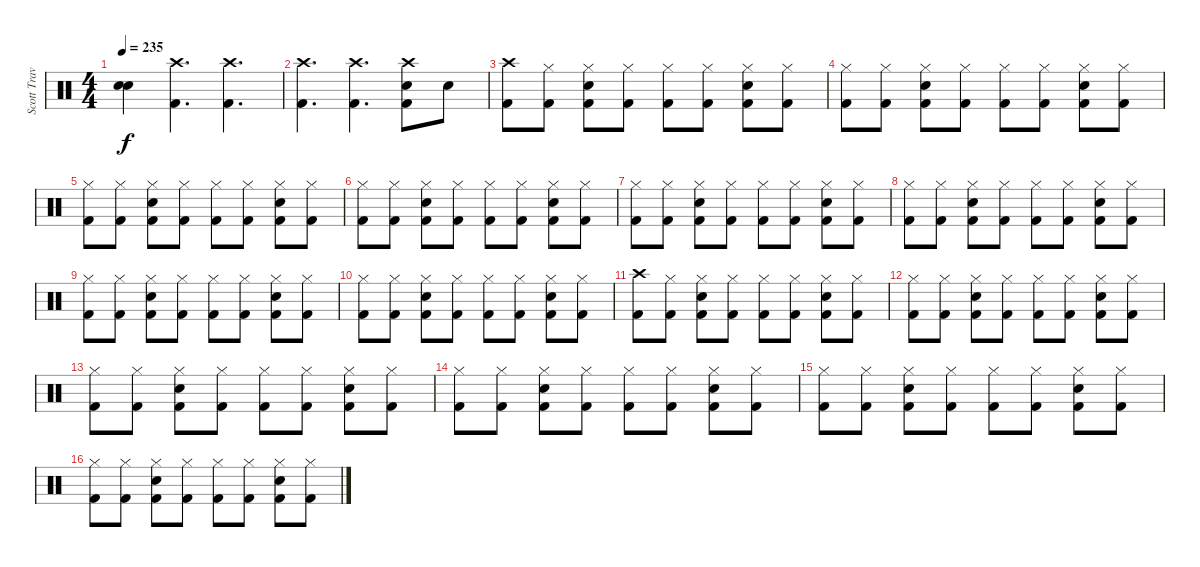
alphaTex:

\track ("Scott Travis" "Scott Trav") {instrument percussion}
\staff {score}
\articulation defaults
\ts (4 4)
\tempo 235
\clef neutral
\ks c
("Snare (hit)"{t} "Snare (hit)"{t}).4{dy f} ("Kick (hit) 2" "Crash high (hit)").4{d} ("Kick (hit) 2" "Crash high (hit)").4{d} |
("Kick (hit) 2" "Crash high (hit)").4{d} ("Kick (hit) 2" "Crash high (hit)").4{d} ("Kick (hit) 2" "Crash high (hit)" "Snare (hit) 2").8 "Snare (hit) 2".8 |
("Kick (hit) 2" "Crash high (hit)").8 ("Kick (hit) 2" "Hi-Hat (closed)").8 ("Kick (hit) 2" "Snare (hit) 2" "Hi-Hat (closed)").8 ("Kick (hit) 2" "Hi-Hat (closed)").8 ("Kick (hit) 2" "Hi-Hat (closed)").8 ("Kick (hit) 2" "Hi-Hat (closed)").8 ("Kick (hit) 2" "Hi-Hat (closed)" "Snare (hit) 2").8 ("Kick (hit) 2" "Hi-Hat (closed)").8 |
("Kick (hit) 2" "Hi-Hat (closed)").8 ("Kick (hit) 2" "Hi-Hat (closed)").8 ("Kick (hit) 2" "Snare (hit) 2" "Hi-Hat (closed)").8 ("Kick (hit) 2" "Hi-Hat (closed)").8 ("Kick (hit) 2" "Hi-Hat (closed)").8 ("Kick (hit) 2" "Hi-Hat (closed)").8 ("Kick (hit) 2" "Hi-Hat (closed)" "Snare (hit) 2").8 ("Kick (hit) 2" "Hi-Hat (closed)").8 |
("Kick (hit) 2" "Hi-Hat (closed)").8 ("Kick (hit) 2" "Hi-Hat (closed)").8 ("Kick (hit) 2" "Snare (hit) 2" "Hi-Hat (closed)").8 ("Kick (hit) 2" "Hi-Hat (closed)").8 ("Kick (hit) 2" "Hi-Hat (closed)").8 ("Kick (hit) 2" "Hi-Hat (closed)").8 ("Kick (hit) 2" "Hi-Hat (closed)" "Snare (hit) 2").8 ("Kick (hit) 2" "Hi-Hat (closed)").8 |
("Kick (hit) 2" "Hi-Hat (closed)").8 ("Kick (hit) 2" "Hi-Hat (closed)").8 ("Kick (hit) 2" "Snare (hit) 2" "Hi-Hat (closed)").8 ("Kick (hit) 2" "Hi-Hat (closed)").8 ("Kick (hit) 2" "Hi-Hat (closed)").8 ("Kick (hit) 2" "Hi-Hat (closed)").8 ("Kick (hit) 2" "Hi-Hat (closed)" "Snare (hit) 2").8 ("Kick (hit) 2" "Hi-Hat (closed)").8 |
("Kick (hit) 2" "Hi-Hat (closed)").8 ("Kick (hit) 2" "Hi-Hat (closed)").8 ("Kick (hit) 2" "Snare (hit) 2" "Hi-Hat (closed)").8 ("Kick (hit) 2" "Hi-Hat (closed)").8 ("Kick (hit) 2" "Hi-Hat (closed)").8 ("Kick (hit) 2" "Hi-Hat (closed)").8 ("Kick (hit) 2" "Hi-Hat (closed)" "Snare (hit) 2").8 ("Kick (hit) 2" "Hi-Hat (closed)").8 |
("Kick (hit) 2" "Hi-Hat (closed)").8 ("Kick (hit) 2" "Hi-Hat (closed)").8 ("Kick (hit) 2" "Snare (hit) 2" "Hi-Hat (closed)").8 ("Kick (hit) 2" "Hi-Hat (closed)").8 ("Kick (hit) 2" "Hi-Hat (closed)").8 ("Kick (hit) 2" "Hi-Hat (closed)").8 ("Kick (hit) 2" "Hi-Hat (closed)" "Snare (hit) 2").8 ("Kick (hit) 2" "Hi-Hat (closed)").8 |
("Kick (hit) 2" "Hi-Hat (closed)").8 ("Kick (hit) 2" "Hi-Hat (closed)").8 ("Kick (hit) 2" "Snare (hit) 2" "Hi-Hat (closed)").8 ("Kick (hit) 2" "Hi-Hat (closed)").8 ("Kick (hit) 2" "Hi-Hat (closed)").8 ("Kick (hit) 2" "Hi-Hat (closed)").8 ("Kick (hit) 2" "Hi-Hat (closed)" "Snare (hit) 2").8 ("Kick (hit) 2" "Hi-Hat (closed)").8 |
("Kick (hit) 2" "Hi-Hat (closed)").8 ("Kick (hit) 2" "Hi-Hat (closed)").8 ("Kick (hit) 2" "Snare (hit) 2" "Hi-Hat (closed)").8 ("Kick (hit) 2" "Hi-Hat (closed)").8 ("Kick (hit) 2" "Hi-Hat (closed)").8 ("Kick (hit) 2" "Hi-Hat (closed)").8 ("Kick (hit) 2" "Hi-Hat (closed)" "Snare (hit) 2").8 ("Kick (hit) 2" "Hi-Hat (closed)").8 |
("Kick (hit) 2" "Crash high (hit)").8 ("Kick (hit) 2" "Hi-Hat (closed)").8 ("Kick (hit) 2" "Snare (hit) 2" "Hi-Hat (closed)").8 ("Kick (hit) 2" "Hi-Hat (closed)").8 ("Kick (hit) 2" "Hi-Hat (closed)").8 ("Kick (hit) 2" "Hi-Hat (closed)").8 ("Kick (hit) 2" "Hi-Hat (closed)" "Snare (hit) 2").8 ("Kick (hit) 2" "Hi-Hat (closed)").8 |
("Kick (hit) 2" "Hi-Hat (closed)").8 ("Kick (hit) 2" "Hi-Hat (closed)").8 ("Kick (hit) 2" "Snare (hit) 2" "Hi-Hat (closed)").8 ("Kick (hit) 2" "Hi-Hat (closed)").8 ("Kick (hit) 2" "Hi-Hat (closed)").8 ("Kick (hit) 2" "Hi-Hat (closed)").8 ("Kick (hit) 2" "Hi-Hat (closed)" "Snare (hit) 2").8 ("Kick (hit) 2" "Hi-Hat (closed)").8 |
("Kick (hit) 2" "Hi-Hat (closed)").8 ("Kick (hit) 2" "Hi-Hat (closed)").8 ("Kick (hit) 2" "Snare (hit) 2" "Hi-Hat (closed)").8 ("Kick (hit) 2" "Hi-Hat (closed)").8 ("Kick (hit) 2" "Hi-Hat (closed)").8 ("Kick (hit) 2" "Hi-Hat (closed)").8 ("Kick (hit) 2" "Hi-Hat (closed)" "Snare (hit) 2").8 ("Kick (hit) 2" "Hi-Hat (closed)").8 |
("Kick (hit) 2" "Hi-Hat (closed)").8 ("Kick (hit) 2" "Hi-Hat (closed)").8 ("Kick (hit) 2" "Snare (hit) 2" "Hi-Hat (closed)").8 ("Kick (hit) 2" "Hi-Hat (closed)").8 ("Kick (hit) 2" "Hi-Hat (closed)").8 ("Kick (hit) 2" "Hi-Hat (closed)").8 ("Kick (hit) 2" "Hi-Hat (closed)" "Snare (hit) 2").8 ("Kick (hit) 2" "Hi-Hat (closed)").8 |
("Kick (hit) 2" "Hi-Hat (closed)").8 ("Kick (hit) 2" "Hi-Hat (closed)").8 ("Kick (hit) 2" "Snare (hit) 2" "Hi-Hat (closed)").8 ("Kick (hit) 2" "Hi-Hat (closed)").8 ("Kick (hit) 2" "Hi-Hat (closed)").8 ("Kick (hit) 2" "Hi-Hat (closed)").8 ("Kick (hit) 2" "Hi-Hat (closed)" "Snare (hit) 2").8 ("Kick (hit) 2" "Hi-Hat (closed)").8 |
("Kick (hit) 2" "Hi-Hat (closed)").8 ("Kick (hit) 2" "Hi-Hat (closed)").8 ("Kick (hit) 2" "Snare (hit) 2" "Hi-Hat (closed)").8 ("Kick (hit) 2" "Hi-Hat (closed)").8 ("Kick (hit) 2" "Hi-Hat (closed)").8 ("Kick (hit) 2" "Hi-Hat (closed)").8 ("Kick (hit) 2" "Hi-Hat (closed)" "Snare (hit) 2").8 ("Kick (hit) 2" "Hi-Hat (closed)").8
